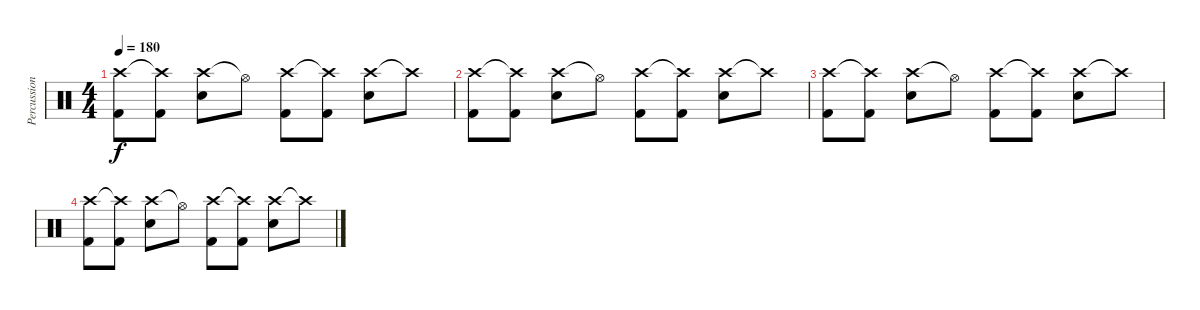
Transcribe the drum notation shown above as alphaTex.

\track ("Percussion" "Percussion") {instrument percussion}
\staff {score}
\articulation defaults
\ts (4 4)
\tempo 180
\clef neutral
\ks c
("Crash high (hit)" "Kick (hit) 2").8{dy f} ("Crash high (hit)"{t} "Kick (hit) 2").8 ("Crash high (hit)" "Snare (hit) 2").8 "Hi-Hat (open)"{t}.8 ("Crash high (hit)" "Kick (hit) 2").8 ("Crash high (hit)"{t} "Kick (hit) 2").8 ("Crash high (hit)" "Snare (hit) 2").8 "Crash high (hit)"{t}.8 |
("Crash high (hit)" "Kick (hit) 2").8 ("Crash high (hit)"{t} "Kick (hit) 2").8 ("Crash high (hit)" "Snare (hit) 2").8 "Hi-Hat (open)"{t}.8 ("Crash high (hit)" "Kick (hit) 2").8 ("Crash high (hit)"{t} "Kick (hit) 2").8 ("Crash high (hit)" "Snare (hit) 2").8 "Crash high (hit)"{t}.8 |
("Crash high (hit)" "Kick (hit) 2").8 ("Crash high (hit)"{t} "Kick (hit) 2").8 ("Crash high (hit)" "Snare (hit) 2").8 "Hi-Hat (open)"{t}.8 ("Crash high (hit)" "Kick (hit) 2").8 ("Crash high (hit)"{t} "Kick (hit) 2").8 ("Crash high (hit)" "Snare (hit) 2").8 "Crash high (hit)"{t}.8 |
("Crash high (hit)" "Kick (hit) 2").8 ("Crash high (hit)"{t} "Kick (hit) 2").8 ("Crash high (hit)" "Snare (hit) 2").8 "Hi-Hat (open)"{t}.8 ("Crash high (hit)" "Kick (hit) 2").8 ("Crash high (hit)"{t} "Kick (hit) 2").8 ("Crash high (hit)" "Snare (hit) 2").8 "Crash high (hit)"{t}.8
